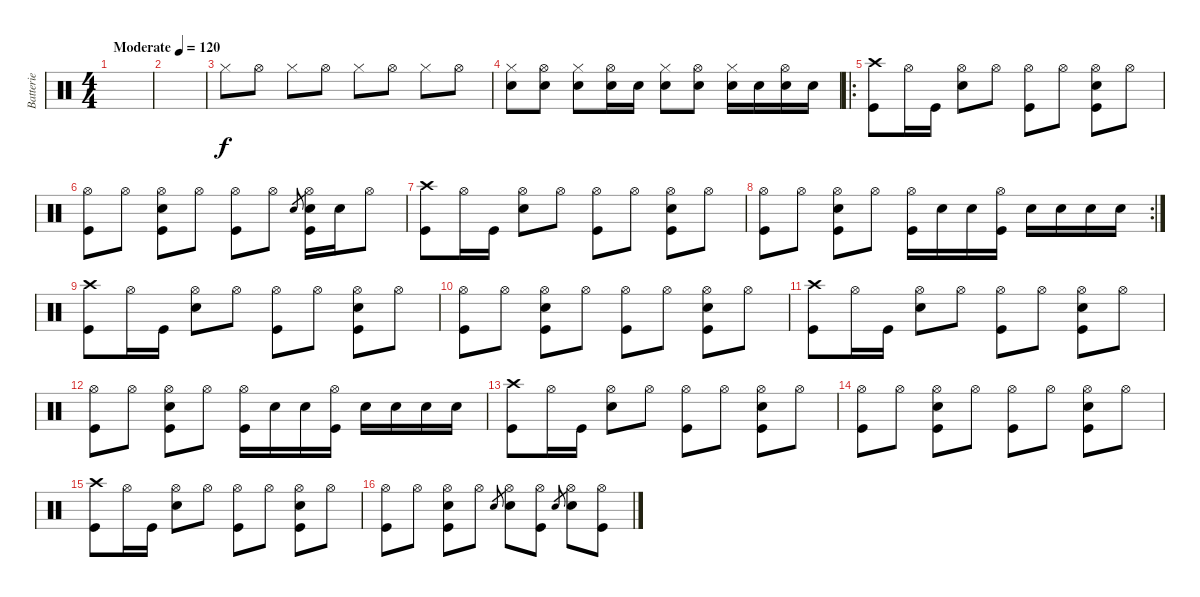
\track ("Batterie" "Batterie") {instrument percussion}
\staff {score}
\articulation defaults
\ts (4 4)
\tempo (120 "Moderate")
\clef neutral
\ks c
|
|
"Hi-Hat (closed)".8 "Hi-Hat (open)".8 "Hi-Hat (closed)".8 "Hi-Hat (open)".8 "Hi-Hat (closed)".8 "Hi-Hat (open)".8 "Hi-Hat (closed)".8 "Hi-Hat (open)".8 |
("Snare (hit) 2" "Hi-Hat (closed)").8 ("Snare (hit) 2" "Hi-Hat (open)").8 ("Snare (hit) 2" "Hi-Hat (closed)").8 ("Snare (hit) 2" "Hi-Hat (open)").16 "Snare (hit) 2".16 ("Snare (hit) 2" "Hi-Hat (closed)").8 ("Snare (hit) 2" "Hi-Hat (open)").8 ("Snare (hit) 2" "Hi-Hat (closed)").16 "Snare (hit) 2".16 ("Snare (hit) 2" "Hi-Hat (open)").16 "Snare (hit) 2".16 |
\ro
("Kick (hit)" "Crash high (hit)").8 "Hi-Hat (open)".16 "Kick (hit)".16 ("Hi-Hat (open)" "Snare (hit) 2").8 "Hi-Hat (open)".8 ("Hi-Hat (open)" "Kick (hit)").8 "Hi-Hat (open)".8 ("Snare (hit) 2" "Hi-Hat (open)" "Kick (hit)").8 "Hi-Hat (open)".8 |
("Kick (hit)" "Hi-Hat (open)").8 "Hi-Hat (open)".8 ("Hi-Hat (open)" "Snare (hit) 2" "Kick (hit)").8 "Hi-Hat (open)".8 ("Hi-Hat (open)" "Kick (hit)").8 "Hi-Hat (open)".8 "Snare (hit) 2".8{gr} ("Snare (hit) 2" "Hi-Hat (open)" "Kick (hit)").16 "Snare (hit) 2".16 "Hi-Hat (open)".8 |
("Kick (hit)" "Crash high (hit)").8 "Hi-Hat (open)".16 "Kick (hit)".16 ("Hi-Hat (open)" "Snare (hit) 2").8 "Hi-Hat (open)".8 ("Hi-Hat (open)" "Kick (hit)").8 "Hi-Hat (open)".8 ("Snare (hit) 2" "Hi-Hat (open)" "Kick (hit)").8 "Hi-Hat (open)".8 |
\rc 2
("Kick (hit)" "Hi-Hat (open)").8 "Hi-Hat (open)".8 ("Hi-Hat (open)" "Snare (hit) 2" "Kick (hit)").8 "Hi-Hat (open)".8 ("Hi-Hat (open)" "Kick (hit)").16 "Snare (hit) 2".16 "Snare (hit) 2".16 ("Hi-Hat (open)" "Kick (hit)").16 "Snare (hit) 2".16 "Snare (hit) 2".16 "Snare (hit) 2".16 "Snare (hit) 2".16 |
("Kick (hit)" "Crash high (hit)").8 "Hi-Hat (open)".16 "Kick (hit)".16 ("Hi-Hat (open)" "Snare (hit) 2").8 "Hi-Hat (open)".8 ("Hi-Hat (open)" "Kick (hit)").8 "Hi-Hat (open)".8 ("Snare (hit) 2" "Hi-Hat (open)" "Kick (hit)").8 "Hi-Hat (open)".8 |
("Kick (hit)" "Hi-Hat (open)").8 "Hi-Hat (open)".8 ("Hi-Hat (open)" "Snare (hit) 2" "Kick (hit)").8 "Hi-Hat (open)".8 ("Hi-Hat (open)" "Kick (hit)").8 "Hi-Hat (open)".8 ("Snare (hit) 2" "Hi-Hat (open)" "Kick (hit)").8 "Hi-Hat (open)".8 |
("Kick (hit)" "Crash high (hit)").8 "Hi-Hat (open)".16 "Kick (hit)".16 ("Hi-Hat (open)" "Snare (hit) 2").8 "Hi-Hat (open)".8 ("Hi-Hat (open)" "Kick (hit)").8 "Hi-Hat (open)".8 ("Snare (hit) 2" "Hi-Hat (open)" "Kick (hit)").8 "Hi-Hat (open)".8 |
("Kick (hit)" "Hi-Hat (open)").8 "Hi-Hat (open)".8 ("Hi-Hat (open)" "Snare (hit) 2" "Kick (hit)").8 "Hi-Hat (open)".8 ("Hi-Hat (open)" "Kick (hit)").16 "Snare (hit) 2".16 "Snare (hit) 2".16 ("Hi-Hat (open)" "Kick (hit)").16 "Snare (hit) 2".16 "Snare (hit) 2".16 "Snare (hit) 2".16 "Snare (hit) 2".16 |
("Kick (hit)" "Crash high (hit)").8 "Hi-Hat (open)".16 "Kick (hit)".16 ("Hi-Hat (open)" "Snare (hit) 2").8 "Hi-Hat (open)".8 ("Hi-Hat (open)" "Kick (hit)").8 "Hi-Hat (open)".8 ("Snare (hit) 2" "Hi-Hat (open)" "Kick (hit)").8 "Hi-Hat (open)".8 |
("Kick (hit)" "Hi-Hat (open)").8 "Hi-Hat (open)".8 ("Hi-Hat (open)" "Snare (hit) 2" "Kick (hit)").8 "Hi-Hat (open)".8 ("Hi-Hat (open)" "Kick (hit)").8 "Hi-Hat (open)".8 ("Snare (hit) 2" "Hi-Hat (open)" "Kick (hit)").8 "Hi-Hat (open)".8 |
("Kick (hit)" "Crash high (hit)").8 "Hi-Hat (open)".16 "Kick (hit)".16 ("Hi-Hat (open)" "Snare (hit) 2").8 "Hi-Hat (open)".8 ("Hi-Hat (open)" "Kick (hit)").8 "Hi-Hat (open)".8 ("Snare (hit) 2" "Hi-Hat (open)" "Kick (hit)").8 "Hi-Hat (open)".8 |
("Kick (hit)" "Hi-Hat (open)").8 "Hi-Hat (open)".8 ("Hi-Hat (open)" "Snare (hit) 2" "Kick (hit)").8 "Hi-Hat (open)".8 "Snare (hit) 2".8{gr} ("Snare (hit) 2" "Hi-Hat (open)").8 ("Kick (hit)" "Hi-Hat (open)").8 "Snare (hit) 2".8{gr} ("Snare (hit) 2" "Hi-Hat (open)").8 ("Kick (hit)" "Hi-Hat (open)").8
